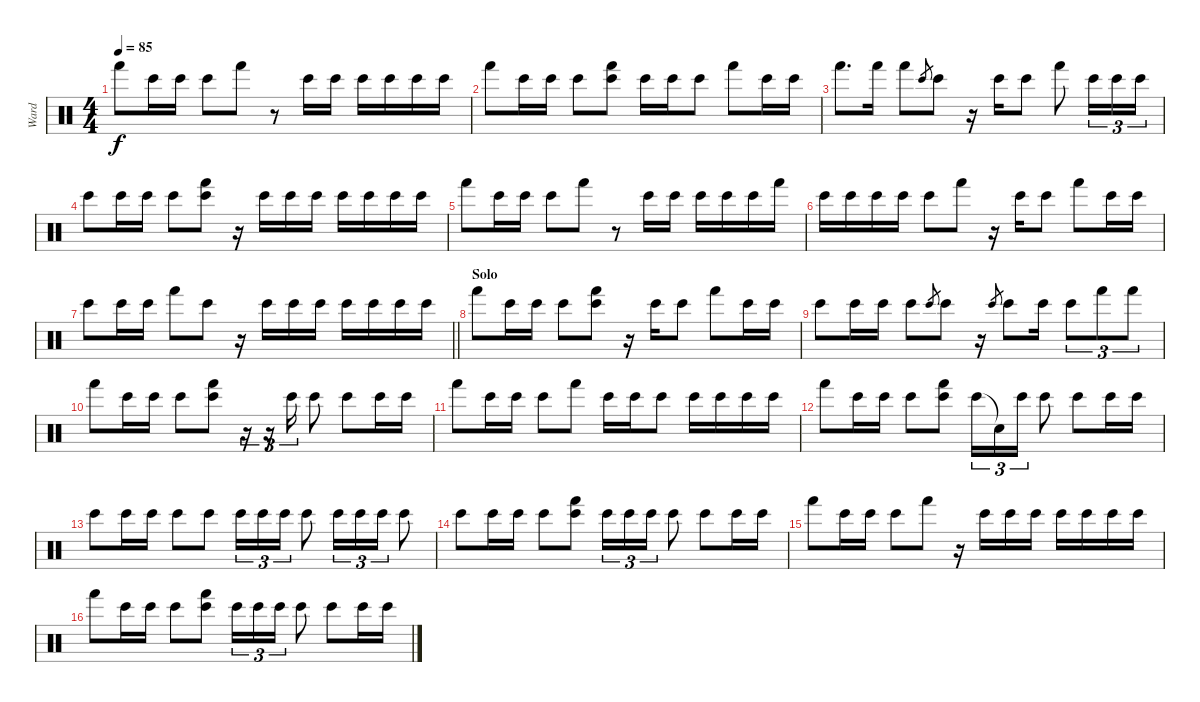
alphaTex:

\track ("Ward" "Ward") {instrument percussion}
\staff {score}
\articulation defaults
\ts (4 4)
\tempo 85
\clef neutral
\ks c "Hand (hit)".8{dy f} "Bongo High (hit)".16 "Bongo High (hit)".16 "Bongo High (hit)".8 "Hand (hit)".8
r.8 "Bongo High (hit)".16 "Bongo High (hit)".16 "Bongo High (hit)".16 "Bongo High (hit)".16 "Bongo High (hit)".16 "Bongo High (hit)".16 |
"Hand (hit)".8 "Bongo High (hit)".16 "Bongo High (hit)".16 "Bongo High (hit)".8 ("Bongo High (hit)" "Hand (hit)").8 "Bongo High (hit)".16 "Bongo High (hit)".16 "Bongo High (hit)".8 "Hand (hit)".8 "Bongo High (hit)".16 "Bongo High (hit)".16 |
"Hand (hit)".8{d} "Hand (hit)".16 "Hand (hit)".8 "Bongo High (hit)".8{gr} "Bongo High (hit)".8 r.16 "Bongo High (hit)".16 "Bongo High (hit)".8 "Hand (hit)".8 "Bongo High (hit)".16{tu (3 2)} "Bongo High (hit)".16{tu (3 2)} "Bongo High (hit)".16{tu (3 2)} |
"Bongo High (hit)".8 "Bongo High (hit)".16 "Bongo High (hit)".16 "Bongo High (hit)".8 ("Bongo High (hit)" "Hand (hit)").8 r.16 "Bongo High (hit)".16 "Bongo High (hit)".16 "Bongo High (hit)".16 "Bongo High (hit)".16 "Bongo High (hit)".16 "Bongo High (hit)".16 "Bongo High (hit)".16 |
"Hand (hit)".8 "Bongo High (hit)".16 "Bongo High (hit)".16 "Bongo High (hit)".8 "Hand (hit)".8 r.8 "Bongo High (hit)".16 "Bongo High (hit)".16 "Bongo High (hit)".16 "Bongo High (hit)".16 "Bongo High (hit)".16 "Hand (hit)".16 |
"Bongo High (hit)".16 "Bongo High (hit)".16 "Bongo High (hit)".16 "Bongo High (hit)".16 "Bongo High (hit)".8 "Hand (hit)".8 r.16 "Bongo High (hit)".16 "Bongo High (hit)".8 "Hand (hit)".8 "Bongo High (hit)".16 "Bongo High (hit)".16 |
\barLineRight lightlight "Bongo High (hit)".8 "Bongo High (hit)".16 "Bongo High (hit)".16 "Hand (hit)".8 "Bongo High (hit)".8
r.16 "Bongo High (hit)".16 "Bongo High (hit)".16 "Bongo High (hit)".16 "Bongo High (hit)".16 "Bongo High (hit)".16 "Bongo High (hit)".16 "Bongo High (hit)".16 |
\section ("" "Solo")
"Hand (hit)".8 "Bongo High (hit)".16 "Bongo High (hit)".16 "Bongo High (hit)".8 ("Bongo High (hit)" "Hand (hit)").8 r.16 "Bongo High (hit)".16 "Bongo High (hit)".8 "Hand (hit)".8 "Bongo High (hit)".16 "Bongo High (hit)".16 |
"Bongo High (hit)".8 "Bongo High (hit)".16 "Bongo High (hit)".16 "Bongo High (hit)".8 "Bongo High (hit)".8{gr} "Bongo High (hit)".8 r.16 "Bongo High (hit)".8{gr} "Bongo High (hit)".8 "Bongo High (hit)".16 "Bongo High (hit)".8{tu (3 2)} "Hand (hit)".8{tu (3 2)} "Hand (hit)".8{tu (3 2)} |
"Hand (hit)".8 "Bongo High (hit)".16 "Bongo High (hit)".16 "Bongo High (hit)".8 ("Bongo High (hit)" "Hand (hit)").8 r.16{tu (3 2)} r.16{tu (3 2)} "Bongo High (hit)".16{tu (3 2)} "Bongo High (hit)".8 "Bongo High (hit)".8 "Bongo High (hit)".16 "Bongo High (hit)".16 |
"Hand (hit)".8 "Bongo High (hit)".16 "Bongo High (hit)".16 "Bongo High (hit)".8 "Hand (hit)".8 "Bongo High (hit)".16 "Bongo High (hit)".16 "Bongo High (hit)".8 "Bongo High (hit)".16 "Bongo High (hit)".16 "Bongo High (hit)".16 "Bongo High (hit)".16 |
"Hand (hit)".8 "Bongo High (hit)".16 "Bongo High (hit)".16 "Bongo High (hit)".8 ("Bongo High (hit)" "Hand (hit)").8 "Bongo High (hit)".16{tu (3 2)} "Snare (hit)"{t}.16{tu (3 2)} "Bongo High (hit)".16{tu (3 2)} "Bongo High (hit)".8 "Bongo High (hit)".8 "Bongo High (hit)".16 "Bongo High (hit)".16 |
"Bongo High (hit)".8 "Bongo High (hit)".16 "Bongo High (hit)".16 "Bongo High (hit)".8 "Bongo High (hit)".8 "Bongo High (hit)".16{tu (3 2)} "Bongo High (hit)".16{tu (3 2)} "Bongo High (hit)".16{tu (3 2)} "Bongo High (hit)".8 "Bongo High (hit)".16{tu (3 2)} "Bongo High (hit)".16{tu (3 2)} "Bongo High (hit)".16{tu (3 2)} "Bongo High (hit)".8 |
"Bongo High (hit)".8 "Bongo High (hit)".16 "Bongo High (hit)".16 "Bongo High (hit)".8 ("Bongo High (hit)" "Hand (hit)").8 "Bongo High (hit)".16{tu (3 2)} "Bongo High (hit)".16{tu (3 2)} "Bongo High (hit)".16{tu (3 2)} "Bongo High (hit)".8 "Bongo High (hit)".8 "Bongo High (hit)".16 "Bongo High (hit)".16 |
"Hand (hit)".8 "Bongo High (hit)".16 "Bongo High (hit)".16 "Bongo High (hit)".8 "Hand (hit)".8 r.16 "Bongo High (hit)".16 "Bongo High (hit)".16 "Bongo High (hit)".16 "Bongo High (hit)".16 "Bongo High (hit)".16 "Bongo High (hit)".16 "Bongo High (hit)".16 |
"Hand (hit)".8 "Bongo High (hit)".16 "Bongo High (hit)".16 "Bongo High (hit)".8 ("Bongo High (hit)" "Hand (hit)").8 "Bongo High (hit)".16{tu (3 2)} "Bongo High (hit)".16{tu (3 2)} "Bongo High (hit)".16{tu (3 2)} "Bongo High (hit)".8 "Bongo High (hit)".8 "Bongo High (hit)".16 "Bongo High (hit)".16
